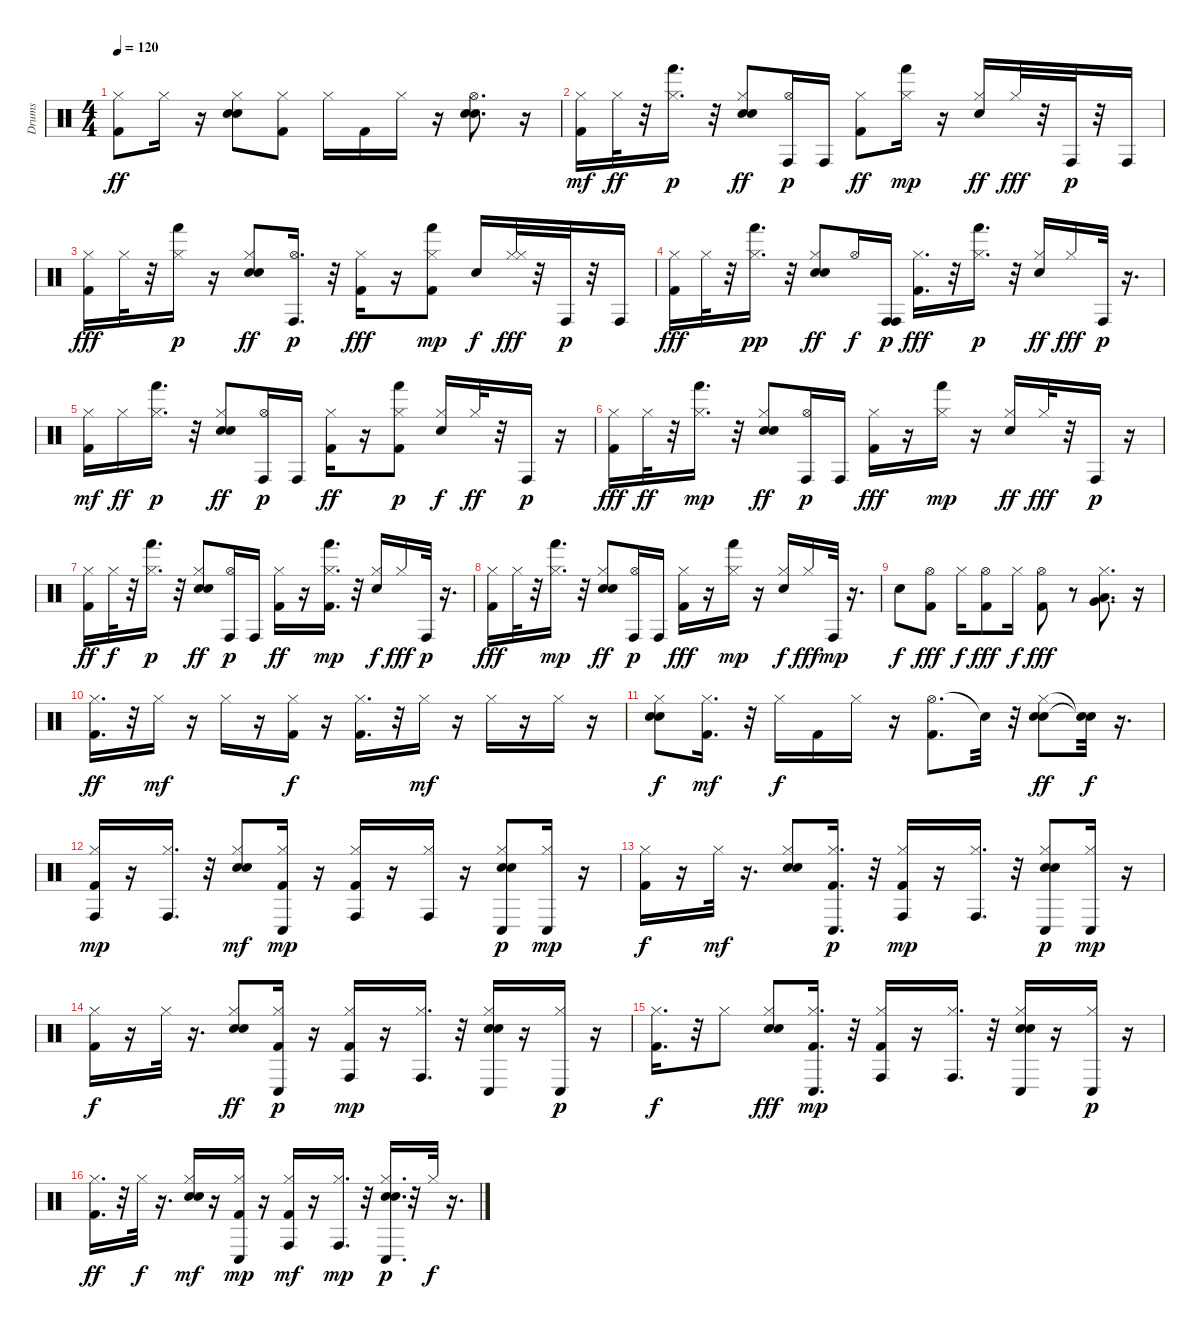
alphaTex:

\track ("Drums" "Drums") {instrument percussion}
\staff {score}
\articulation defaults
\ts (4 4)
\tempo 120
\clef neutral
\ks c
("Kick (hit) 2" "Hi-Hat (closed)").8{dy ff} "Hi-Hat (closed)".16 r.16 ("Electric Snare (hit)" "Hand Clap (hit)" "Hi-Hat (closed)").8 ("Kick (hit) 2" "Hi-Hat (closed)").8 "Hi-Hat (closed)".16 "Kick (hit) 2".16 "Hi-Hat (closed)".16 r.16 ("Electric Snare (hit)" "Hi-Hat (open)" "Hand Clap (hit)").8{d} r.16 |
("Kick (hit) 2" "Hi-Hat (closed)").16{dy mf} "Hi-Hat (closed)".32{dy ff} r.32 ("Hi-Hat (closed)" "Hand (hit)").16{d dy p} r.32 ("Hi-Hat (closed)" "Hand Clap (hit)" "Electric Snare (hit)").8{dy ff} ("Hi-Hat (open)" "Conga high (hit)").16{dy p} "Conga high (hit)".16 ("Kick (hit) 2" "Hi-Hat (closed)").8{dy ff} ("Hi-Hat (closed)" "Hand (hit)").16{dy mp} r.16 ("Hi-Hat (closed)" "Electric Snare (hit)").16{dy ff} "Hi-Hat (closed)".32{dy fff} r.32 "Conga high (hit)".32{dy p} r.32 "Conga high (hit)".16 |
("Kick (hit) 2" "Hi-Hat (closed)").16{dy fff} "Hi-Hat (closed)".32 r.32 ("Hi-Hat (closed)" "Hand (hit)").16{dy p} r.16 ("Hi-Hat (closed)" "Electric Snare (hit)" "Hand Clap (hit)").8{dy ff} ("Hi-Hat (open)" "Conga high (hit)").16{d dy p} r.32 ("Kick (hit) 2" "Hi-Hat (closed)").16{dy fff} r.16 ("Kick (hit) 2" "Hi-Hat (closed)" "Hand (hit)").8{dy mp} "Electric Snare (hit)".16{dy f} ("Hi-Hat (closed)" "Hi-Hat (closed)").32{dy fff} r.32 "Conga high (hit)".32{dy p} r.32 "Conga high (hit)".16 |
("Kick (hit) 2" "Hi-Hat (closed)").16{dy fff} "Hi-Hat (closed)".32 r.32 ("Hi-Hat (closed)" "Hand (hit)").16{d dy pp} r.32 ("Hi-Hat (closed)" "Electric Snare (hit)" "Hand Clap (hit)").8{dy ff} "Hi-Hat (open)".16{dy f} ("Conga high (hit)" "Conga high (hit)").16{dy p} ("Kick (hit) 2" "Hi-Hat (closed)").16{d dy fff} r.32 ("Hi-Hat (closed)" "Hand (hit)").16{d dy p} r.32 ("Hi-Hat (closed)" "Electric Snare (hit)").16{dy ff} "Hi-Hat (closed)".16{dy fff} "Conga high (hit)".32{dy p} r.16{d} |
("Kick (hit) 2" "Hi-Hat (closed)").16{dy mf} "Hi-Hat (closed)".16{dy ff} ("Hi-Hat (closed)" "Hand (hit)").16{d dy p} r.32 ("Hi-Hat (closed)" "Electric Snare (hit)" "Hand Clap (hit)").8{dy ff} ("Hi-Hat (open)" "Conga high (hit)").16{dy p} "Conga high (hit)".16 ("Kick (hit) 2" "Hi-Hat (closed)").16{dy ff} r.16 ("Kick (hit) 2" "Hi-Hat (closed)" "Hand (hit)").8{dy p} ("Hi-Hat (closed)" "Electric Snare (hit)").16{dy f} "Hi-Hat (closed)".32{dy ff} r.32 "Conga high (hit)".16{dy p} r.16 |
("Kick (hit) 2" "Hi-Hat (closed)").16{dy fff} "Hi-Hat (closed)".32{dy ff} r.32 ("Hi-Hat (closed)" "Hand (hit)").16{d dy mp} r.32 ("Hi-Hat (closed)" "Electric Snare (hit)" "Hand Clap (hit)").8{dy ff} ("Hi-Hat (open)" "Conga high (hit)").16{dy p} "Conga high (hit)".16 ("Kick (hit) 2" "Hi-Hat (closed)").16{dy fff} r.16 ("Hi-Hat (closed)" "Hand (hit)").16{dy mp} r.16 ("Hi-Hat (closed)" "Electric Snare (hit)").16{dy ff} "Hi-Hat (closed)".32{dy fff} r.32 "Conga high (hit)".16{dy p} r.16 |
("Kick (hit) 2" "Hi-Hat (closed)").16{dy ff} "Hi-Hat (closed)".32{dy f} r.32 ("Hi-Hat (closed)" "Hand (hit)").16{d dy p} r.32 ("Hi-Hat (closed)" "Hand Clap (hit)" "Electric Snare (hit)").8{dy ff} ("Hi-Hat (open)" "Conga high (hit)").16{dy p} "Conga high (hit)".16 ("Kick (hit) 2" "Hi-Hat (closed)").16{dy ff} r.16 ("Kick (hit) 2" "Hi-Hat (closed)" "Hand (hit)").16{d dy mp} r.32 ("Hi-Hat (closed)" "Electric Snare (hit)").16{dy f} "Hi-Hat (closed)".16{dy fff} "Conga high (hit)".32{dy p} r.16{d} |
("Kick (hit) 2" "Hi-Hat (closed)").16{dy fff} "Hi-Hat (closed)".32 r.32 ("Hi-Hat (closed)" "Hand (hit)").16{d dy mp} r.32 ("Hi-Hat (closed)" "Electric Snare (hit)" "Hand Clap (hit)").8{dy ff} ("Hi-Hat (open)" "Conga high (hit)").16{dy p} "Conga high (hit)".16 ("Kick (hit) 2" "Hi-Hat (closed)").16{dy fff} r.16 ("Hi-Hat (closed)" "Hand (hit)").16{dy mp} r.16 ("Hi-Hat (closed)" "Electric Snare (hit)").16{dy f} "Hi-Hat (closed)".16{dy fff} "Conga high (hit)".32{dy mp} r.16{d} |
"Electric Snare (hit)".8{dy f} ("Kick (hit) 2" "Hi-Hat (open)").8{dy fff} "Hi-Hat (closed)".16{dy f} ("Kick (hit) 2" "Hi-Hat (open)").8{dy fff} "Hi-Hat (closed)".16{dy f} ("Hi-Hat (open)" "Kick (hit) 2").8{dy fff} r.8 ("Low Floor Tom (hit)" "Hi-Hat (closed)" "Very Low Tom (hit)").8{d} r.16 |
("Hi-Hat (closed)" "Kick (hit) 2").16{d dy ff} r.32 "Hi-Hat (closed)".16{dy mf} r.16 "Hi-Hat (closed)".16 r.16 ("Hi-Hat (closed)" "Kick (hit) 2").16{dy f} r.16 ("Hi-Hat (closed)" "Kick (hit) 2").16{d} r.32 "Hi-Hat (closed)".16{dy mf} r.16 "Hi-Hat (closed)".16 r.16 "Hi-Hat (closed)".16 r.16 |
("Hi-Hat (closed)" "Electric Snare (hit)" "Hand Clap (hit)").8{dy f} ("Hi-Hat (closed)" "Kick (hit) 2").16{d dy mf} r.32 "Hi-Hat (closed)".16{dy f} "Kick (hit) 2".16 "Hi-Hat (closed)".16 r.16 ("Hi-Hat (open)" "Kick (hit) 2").8{d} "Snare (hit)"{t}.32 r.32 ("Hi-Hat (closed)" "Electric Snare (hit)" "Hand Clap (hit)").8{dy ff} ("Snare (hit)"{t} "Snare (hit)"{t}).32{dy f} r.16{d} |
("Hi-Hat (closed)" "Kick (hit) 2" "Conga high (hit)").16{dy mp} r.16 ("Hi-Hat (closed)" "Conga high (hit)").16{d} r.32 ("Hi-Hat (closed)" "Electric Snare (hit)" "Hand Clap (hit)").8{dy mf} ("Hi-Hat (closed)" "Kick (hit) 2" "Conga low (hit)").16{dy mp} r.16 ("Hi-Hat (closed)" "Kick (hit) 2" "Conga high (hit)").16 r.16 ("Hi-Hat (closed)" "Conga high (hit)").16 r.16 ("Hi-Hat (closed)" "Electric Snare (hit)" "Hand Clap (hit)" "Conga low (hit)").8{dy p} ("Hi-Hat (closed)" "Conga low (hit)").16{dy mp} r.16 |
("Hi-Hat (closed)" "Kick (hit) 2").16{dy f} r.16 "Hi-Hat (closed)".32{dy mf} r.16{d} ("Hi-Hat (closed)" "Electric Snare (hit)" "Hand Clap (hit)").8 ("Hi-Hat (closed)" "Kick (hit) 2" "Conga low (hit)").16{d dy p} r.32 ("Hi-Hat (closed)" "Kick (hit) 2" "Conga high (hit)").16{dy mp} r.16 ("Hi-Hat (closed)" "Conga high (hit)").16{d} r.32 ("Hi-Hat (closed)" "Electric Snare (hit)" "Hand Clap (hit)" "Conga low (hit)").8{dy p} ("Hi-Hat (closed)" "Conga low (hit)").16{dy mp} r.16 |
("Hi-Hat (closed)" "Kick (hit) 2").16{dy f} r.16 "Hi-Hat (closed)".32 r.16{d} ("Hi-Hat (closed)" "Electric Snare (hit)" "Hand Clap (hit)").8{dy ff} ("Hi-Hat (closed)" "Kick (hit) 2" "Conga low (hit)").16{dy p} r.16 ("Hi-Hat (closed)" "Kick (hit) 2" "Conga high (hit)").16{dy mp} r.16 ("Hi-Hat (closed)" "Conga high (hit)").16{d} r.32 ("Hi-Hat (closed)" "Electric Snare (hit)" "Hand Clap (hit)" "Conga low (hit)").16 r.16 ("Hi-Hat (closed)" "Conga low (hit)").16{dy p} r.16 |
("Hi-Hat (closed)" "Kick (hit) 2").16{d dy f} r.32 "Hi-Hat (closed)".8 ("Hi-Hat (closed)" "Electric Snare (hit)" "Hand Clap (hit)").8{dy fff} ("Hi-Hat (closed)" "Kick (hit) 2" "Conga low (hit)").16{d dy mp} r.32 ("Hi-Hat (closed)" "Kick (hit) 2" "Conga high (hit)").16 r.16 ("Hi-Hat (closed)" "Conga high (hit)").16{d} r.32 ("Hi-Hat (closed)" "Electric Snare (hit)" "Hand Clap (hit)" "Conga low (hit)").16 r.16 ("Hi-Hat (closed)" "Conga low (hit)").16{dy p} r.16 |
("Hi-Hat (closed)" "Kick (hit) 2").16{d dy ff} r.32 "Hi-Hat (closed)".32{dy f} r.16{d} ("Hi-Hat (closed)" "Electric Snare (hit)" "Hand Clap (hit)").16{dy mf} r.16 ("Hi-Hat (closed)" "Kick (hit) 2" "Conga low (hit)").16{dy mp} r.16 ("Hi-Hat (closed)" "Kick (hit) 2" "Conga high (hit)").16{dy mf} r.16 ("Hi-Hat (closed)" "Conga high (hit)").16{d dy mp} r.32 ("Hi-Hat (closed)" "Electric Snare (hit)" "Hand Clap (hit)" "Conga low (hit)").16{d dy p} r.32 "Hi-Hat (closed)".32{dy f} r.16{d}
